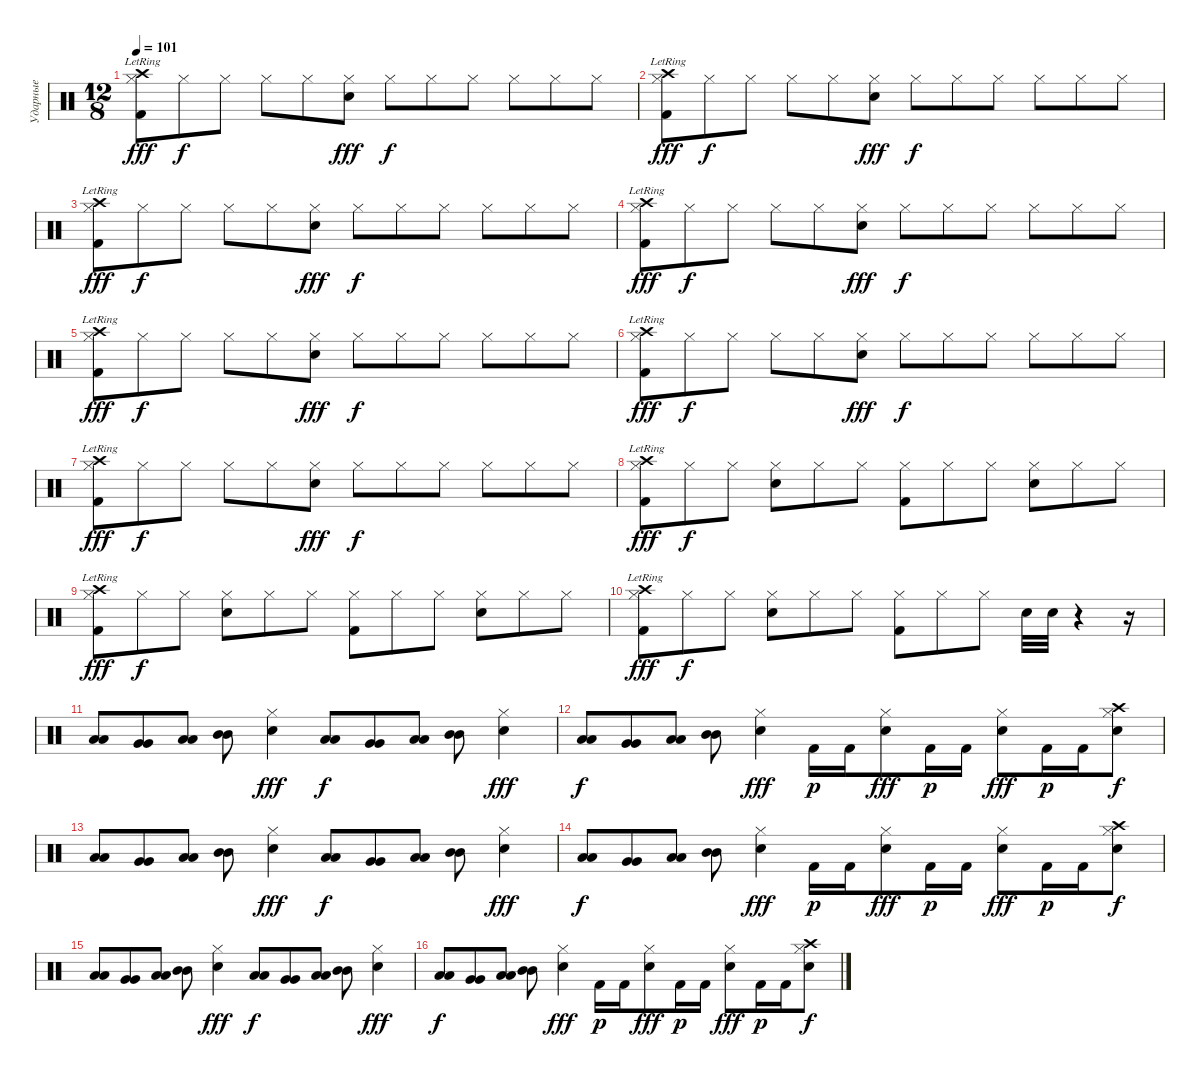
\track ("Ударные" "Ударные") {instrument percussion}
\staff {score}
\articulation defaults
\ts (12 8)
\tempo 101
\clef neutral
\ks c
("Hi-Hat (closed)" "Kick (hit) 2" "Crash high (hit)"{lr}).8{dy fff} "Hi-Hat (closed)".8{dy f} "Hi-Hat (closed)".8 "Hi-Hat (closed)".8 "Hi-Hat (closed)".8 ("Hi-Hat (closed)" "Snare (hit) 2").8{dy fff} "Hi-Hat (closed)".8{dy f} "Hi-Hat (closed)".8 "Hi-Hat (closed)".8 "Hi-Hat (closed)".8 "Hi-Hat (closed)".8 "Hi-Hat (closed)".8 |
("Hi-Hat (closed)" "Kick (hit) 2" "Crash high (hit)"{lr}).8{dy fff} "Hi-Hat (closed)".8{dy f} "Hi-Hat (closed)".8 "Hi-Hat (closed)".8 "Hi-Hat (closed)".8 ("Hi-Hat (closed)" "Snare (hit) 2").8{dy fff} "Hi-Hat (closed)".8{dy f} "Hi-Hat (closed)".8 "Hi-Hat (closed)".8 "Hi-Hat (closed)".8 "Hi-Hat (closed)".8 "Hi-Hat (closed)".8 |
("Hi-Hat (closed)" "Kick (hit) 2" "Crash high (hit)"{lr}).8{dy fff} "Hi-Hat (closed)".8{dy f} "Hi-Hat (closed)".8 "Hi-Hat (closed)".8 "Hi-Hat (closed)".8 ("Hi-Hat (closed)" "Snare (hit) 2").8{dy fff} "Hi-Hat (closed)".8{dy f} "Hi-Hat (closed)".8 "Hi-Hat (closed)".8 "Hi-Hat (closed)".8 "Hi-Hat (closed)".8 "Hi-Hat (closed)".8 |
("Hi-Hat (closed)" "Kick (hit) 2" "Crash high (hit)"{lr}).8{dy fff} "Hi-Hat (closed)".8{dy f} "Hi-Hat (closed)".8 "Hi-Hat (closed)".8 "Hi-Hat (closed)".8 ("Hi-Hat (closed)" "Snare (hit) 2").8{dy fff} "Hi-Hat (closed)".8{dy f} "Hi-Hat (closed)".8 "Hi-Hat (closed)".8 "Hi-Hat (closed)".8 "Hi-Hat (closed)".8 "Hi-Hat (closed)".8 |
("Hi-Hat (closed)" "Kick (hit) 2" "Crash high (hit)"{lr}).8{dy fff} "Hi-Hat (closed)".8{dy f} "Hi-Hat (closed)".8 "Hi-Hat (closed)".8 "Hi-Hat (closed)".8 ("Hi-Hat (closed)" "Snare (hit) 2").8{dy fff} "Hi-Hat (closed)".8{dy f} "Hi-Hat (closed)".8 "Hi-Hat (closed)".8 "Hi-Hat (closed)".8 "Hi-Hat (closed)".8 "Hi-Hat (closed)".8 |
("Hi-Hat (closed)" "Kick (hit) 2" "Crash high (hit)"{lr}).8{dy fff} "Hi-Hat (closed)".8{dy f} "Hi-Hat (closed)".8 "Hi-Hat (closed)".8 "Hi-Hat (closed)".8 ("Hi-Hat (closed)" "Snare (hit) 2").8{dy fff} "Hi-Hat (closed)".8{dy f} "Hi-Hat (closed)".8 "Hi-Hat (closed)".8 "Hi-Hat (closed)".8 "Hi-Hat (closed)".8 "Hi-Hat (closed)".8 |
("Hi-Hat (closed)" "Kick (hit) 2" "Crash high (hit)"{lr}).8{dy fff} "Hi-Hat (closed)".8{dy f} "Hi-Hat (closed)".8 "Hi-Hat (closed)".8 "Hi-Hat (closed)".8 ("Hi-Hat (closed)" "Snare (hit) 2").8{dy fff} "Hi-Hat (closed)".8{dy f} "Hi-Hat (closed)".8 "Hi-Hat (closed)".8 "Hi-Hat (closed)".8 "Hi-Hat (closed)".8 "Hi-Hat (closed)".8 |
("Hi-Hat (closed)" "Kick (hit) 2" "Crash high (hit)"{lr}).8{dy fff} "Hi-Hat (closed)".8{dy f} "Hi-Hat (closed)".8 ("Hi-Hat (closed)" "Snare (hit) 2").8 "Hi-Hat (closed)".8 "Hi-Hat (closed)".8 ("Hi-Hat (closed)" "Kick (hit) 2").8 "Hi-Hat (closed)".8 "Hi-Hat (closed)".8 ("Hi-Hat (closed)" "Snare (hit) 2").8 "Hi-Hat (closed)".8 "Hi-Hat (closed)".8 |
("Hi-Hat (closed)" "Kick (hit) 2" "Crash high (hit)"{lr}).8{dy fff} "Hi-Hat (closed)".8{dy f} "Hi-Hat (closed)".8 ("Hi-Hat (closed)" "Snare (hit) 2").8 "Hi-Hat (closed)".8 "Hi-Hat (closed)".8 ("Hi-Hat (closed)" "Kick (hit) 2").8 "Hi-Hat (closed)".8 "Hi-Hat (closed)".8 ("Hi-Hat (closed)" "Snare (hit) 2").8 "Hi-Hat (closed)".8 "Hi-Hat (closed)".8 |
("Hi-Hat (closed)" "Kick (hit) 2" "Crash high (hit)"{lr}).8{dy fff} "Hi-Hat (closed)".8{dy f} "Hi-Hat (closed)".8 ("Hi-Hat (closed)" "Snare (hit) 2").8 "Hi-Hat (closed)".8 "Hi-Hat (closed)".8 ("Hi-Hat (closed)" "Kick (hit) 2").8 "Hi-Hat (closed)".8 "Hi-Hat (closed)".8 "Snare (hit) 2".32 "Snare (hit) 2".32 r.4 r.16 |
("Low Floor Tom (hit)" "Low Floor Tom (hit)").8 ("Very Low Tom (hit)" "Very Low Tom (hit)").8 ("Low Tom (hit)" "Low Tom (hit)").8 ("Mid Tom (hit)" "Mid Tom (hit)").8 ("Hi-Hat (closed)" "Snare (hit) 2").4{dy fff} ("Low Floor Tom (hit)" "Low Floor Tom (hit)").8{dy f} ("Very Low Tom (hit)" "Very Low Tom (hit)").8 ("Low Tom (hit)" "Low Tom (hit)").8 ("Mid Tom (hit)" "Mid Tom (hit)").8 ("Hi-Hat (closed)" "Snare (hit) 2").4{dy fff} |
("Low Floor Tom (hit)" "Low Floor Tom (hit)").8{dy f} ("Very Low Tom (hit)" "Very Low Tom (hit)").8 ("Low Tom (hit)" "Low Tom (hit)").8 ("Mid Tom (hit)" "Mid Tom (hit)").8 ("Hi-Hat (closed)" "Snare (hit) 2").4{dy fff} "Kick (hit) 2".16{dy p} "Kick (hit) 2".16 ("Hi-Hat (closed)" "Snare (hit) 2").8{dy fff} "Kick (hit) 2".16{dy p} "Kick (hit) 2".16 ("Hi-Hat (closed)" "Snare (hit) 2").8{dy fff} "Kick (hit) 2".16{dy p} "Kick (hit) 2".16 ("Hi-Hat (closed)" "Snare (hit) 2" "Crash high (hit)").8{dy f} |
("Low Floor Tom (hit)" "Low Floor Tom (hit)").8 ("Very Low Tom (hit)" "Very Low Tom (hit)").8 ("Low Tom (hit)" "Low Tom (hit)").8 ("Mid Tom (hit)" "Mid Tom (hit)").8 ("Hi-Hat (closed)" "Snare (hit) 2").4{dy fff} ("Low Floor Tom (hit)" "Low Floor Tom (hit)").8{dy f} ("Very Low Tom (hit)" "Very Low Tom (hit)").8 ("Low Tom (hit)" "Low Tom (hit)").8 ("Mid Tom (hit)" "Mid Tom (hit)").8 ("Hi-Hat (closed)" "Snare (hit) 2").4{dy fff} |
("Low Floor Tom (hit)" "Low Floor Tom (hit)").8{dy f} ("Very Low Tom (hit)" "Very Low Tom (hit)").8 ("Low Tom (hit)" "Low Tom (hit)").8 ("Mid Tom (hit)" "Mid Tom (hit)").8 ("Hi-Hat (closed)" "Snare (hit) 2").4{dy fff} "Kick (hit) 2".16{dy p} "Kick (hit) 2".16 ("Hi-Hat (closed)" "Snare (hit) 2").8{dy fff} "Kick (hit) 2".16{dy p} "Kick (hit) 2".16 ("Hi-Hat (closed)" "Snare (hit) 2").8{dy fff} "Kick (hit) 2".16{dy p} "Kick (hit) 2".16 ("Hi-Hat (closed)" "Snare (hit) 2" "Crash high (hit)").8{dy f} |
("Low Floor Tom (hit)" "Low Floor Tom (hit)").8 ("Very Low Tom (hit)" "Very Low Tom (hit)").8 ("Low Tom (hit)" "Low Tom (hit)").8 ("Mid Tom (hit)" "Mid Tom (hit)").8 ("Hi-Hat (closed)" "Snare (hit) 2").4{dy fff} ("Low Floor Tom (hit)" "Low Floor Tom (hit)").8{dy f} ("Very Low Tom (hit)" "Very Low Tom (hit)").8 ("Low Tom (hit)" "Low Tom (hit)").8 ("Mid Tom (hit)" "Mid Tom (hit)").8 ("Hi-Hat (closed)" "Snare (hit) 2").4{dy fff} |
("Low Floor Tom (hit)" "Low Floor Tom (hit)").8{dy f} ("Very Low Tom (hit)" "Very Low Tom (hit)").8 ("Low Tom (hit)" "Low Tom (hit)").8 ("Mid Tom (hit)" "Mid Tom (hit)").8 ("Hi-Hat (closed)" "Snare (hit) 2").4{dy fff} "Kick (hit) 2".16{dy p} "Kick (hit) 2".16 ("Hi-Hat (closed)" "Snare (hit) 2").8{dy fff} "Kick (hit) 2".16{dy p} "Kick (hit) 2".16 ("Hi-Hat (closed)" "Snare (hit) 2").8{dy fff} "Kick (hit) 2".16{dy p} "Kick (hit) 2".16 ("Hi-Hat (closed)" "Snare (hit) 2" "Crash high (hit)").8{dy f}
